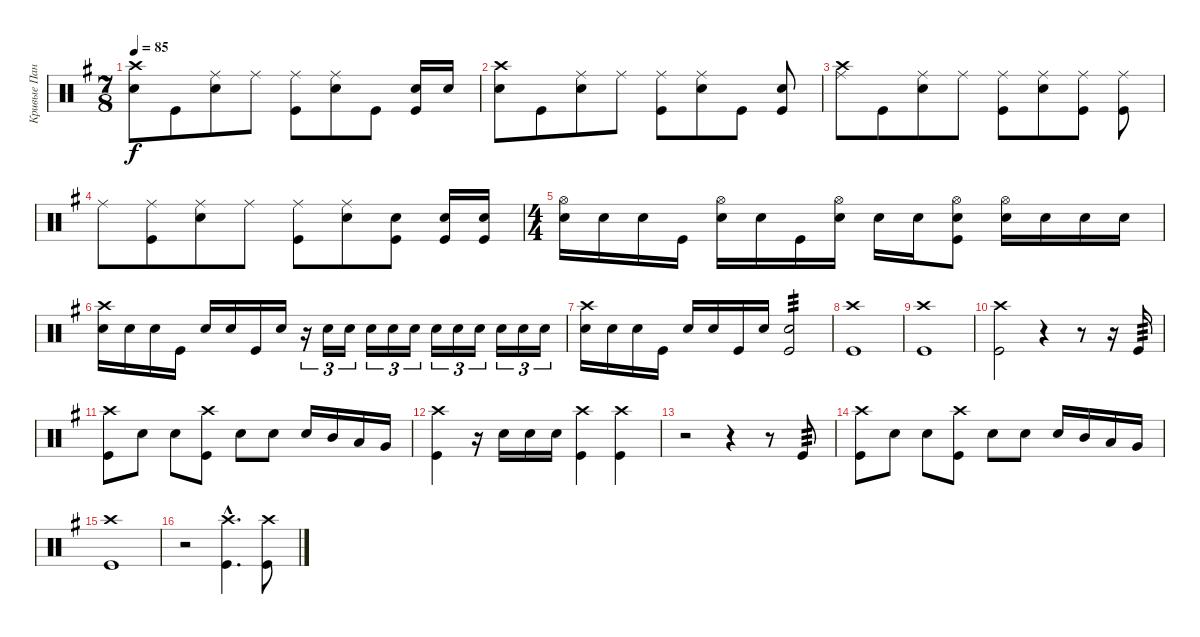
\track ("Кривые Панковские Ударки (CPU)" "Кривые Пан") {instrument percussion}
\staff {score}
\articulation defaults
\ts (7 8)
\tempo 85
\clef neutral
\ks eminor
("Crash high (hit)" "Snare (hit) 2").8{dy f} "Kick (hit)".8 ("Ride (middle)" "Snare (hit) 2").8 "Ride (middle)".8 ("Ride (middle)" "Kick (hit)").8 ("Ride (middle)" "Snare (hit) 2").8 "Kick (hit)".8 ("Snare (hit) 2" "Kick (hit)").16 "Snare (hit) 2".16 |
("Crash high (hit)" "Snare (hit) 2").8 "Kick (hit)".8 ("Ride (middle)" "Snare (hit) 2").8 "Ride (middle)".8 ("Ride (middle)" "Kick (hit)").8 ("Ride (middle)" "Snare (hit) 2").8 "Kick (hit)".8 ("Snare (hit) 2" "Kick (hit)").8 |
("Ride (middle)" "Crash high (hit)").8 "Kick (hit)".8 ("Ride (middle)" "Snare (hit) 2").8 "Ride (middle)".8 ("Ride (middle)" "Kick (hit)").8 ("Ride (middle)" "Snare (hit) 2").8 ("Ride (middle)" "Kick (hit)").8 ("Ride (middle)" "Kick (hit)").8 |
"Ride (middle)".8 ("Ride (middle)" "Kick (hit)").8 ("Ride (middle)" "Snare (hit) 2").8 "Ride (middle)".8 ("Ride (middle)" "Kick (hit)").8 ("Ride (middle)" "Snare (hit) 2").8 ("Snare (hit) 2" "Kick (hit)").8 ("Snare (hit) 2" "Kick (hit)").16 ("Snare (hit) 2" "Kick (hit)").16 |
\ts (4 4)
("Hi-Hat (open)" "Snare (hit) 2").16 "Snare (hit) 2".16 "Snare (hit) 2".16 "Kick (hit)".16 ("Hi-Hat (open)" "Snare (hit) 2").16 "Snare (hit) 2".16 "Kick (hit)".16 ("Hi-Hat (open)" "Snare (hit) 2").16 "Snare (hit) 2".16 "Snare (hit) 2".16 ("Hi-Hat (open)" "Snare (hit) 2" "Kick (hit)").8 ("Hi-Hat (open)" "Snare (hit) 2").16 "Snare (hit) 2".16 "Snare (hit) 2".16 "Snare (hit) 2".16 |
("Crash high (hit)" "Snare (hit) 2").16 "Snare (hit) 2".16 "Snare (hit) 2".16 "Kick (hit)".16 "Snare (hit) 2".16 "Snare (hit) 2".16 "Kick (hit)".16 "Snare (hit) 2".16 r.16{tu (3 2)} "Snare (hit) 2".16{tu (3 2)} "Snare (hit) 2".16{tu (3 2)} "Snare (hit) 2".16{tu (3 2)} "Snare (hit) 2".16{tu (3 2)} "Snare (hit) 2".16{tu (3 2)} "Snare (hit) 2".16{tu (3 2)} "Snare (hit) 2".16{tu (3 2)} "Snare (hit) 2".16{tu (3 2)} "Snare (hit) 2".16{tu (3 2)} "Snare (hit) 2".16{tu (3 2)} "Snare (hit) 2".16{tu (3 2)} |
("Crash high (hit)" "Snare (hit) 2").16 "Snare (hit) 2".16 "Snare (hit) 2".16 "Kick (hit)".16 "Snare (hit) 2".16 "Snare (hit) 2".16 "Kick (hit)".16 "Snare (hit) 2".16 ("Snare (hit) 2" "Kick (hit)").2{tp 3} |
("Crash high (hit)" "Kick (hit)").1 |
("Crash high (hit)" "Kick (hit)").1 |
("Crash high (hit)" "Kick (hit)").2 r.4 r.8 r.16 "Kick (hit)".16{tp 3} |
("Crash high (hit)" "Kick (hit)").8 "Snare (hit) 2".8 "Snare (hit) 2".8 ("Crash high (hit)" "Kick (hit)").8 "Snare (hit) 2".8 "Snare (hit) 2".8 "Snare (hit) 2".16 "Mid Tom (hit)".16 "Low Tom (hit)".16 "Very Low Tom (hit)".16 |
("Crash high (hit)" "Kick (hit)").4 r.16 "Snare (hit) 2".16 "Snare (hit) 2".16 "Snare (hit) 2".16 ("Crash high (hit)" "Kick (hit)").4 ("Crash high (hit)" "Kick (hit)").4 |
r.2 r.4 r.8 "Kick (hit)".8{tp 3} |
("Crash high (hit)" "Kick (hit)").8 "Snare (hit) 2".8 "Snare (hit) 2".8 ("Crash high (hit)" "Kick (hit)").8 "Snare (hit) 2".8 "Snare (hit) 2".8 "Snare (hit) 2".16 "Mid Tom (hit)".16 "Low Tom (hit)".16 "Very Low Tom (hit)".16 |
("Crash high (hit)" "Kick (hit)").1 |
r.2 ("Crash high (hit)"{hac} "Kick (hit)"{hac}).4{d} ("Crash high (hit)" "Kick (hit)").8
